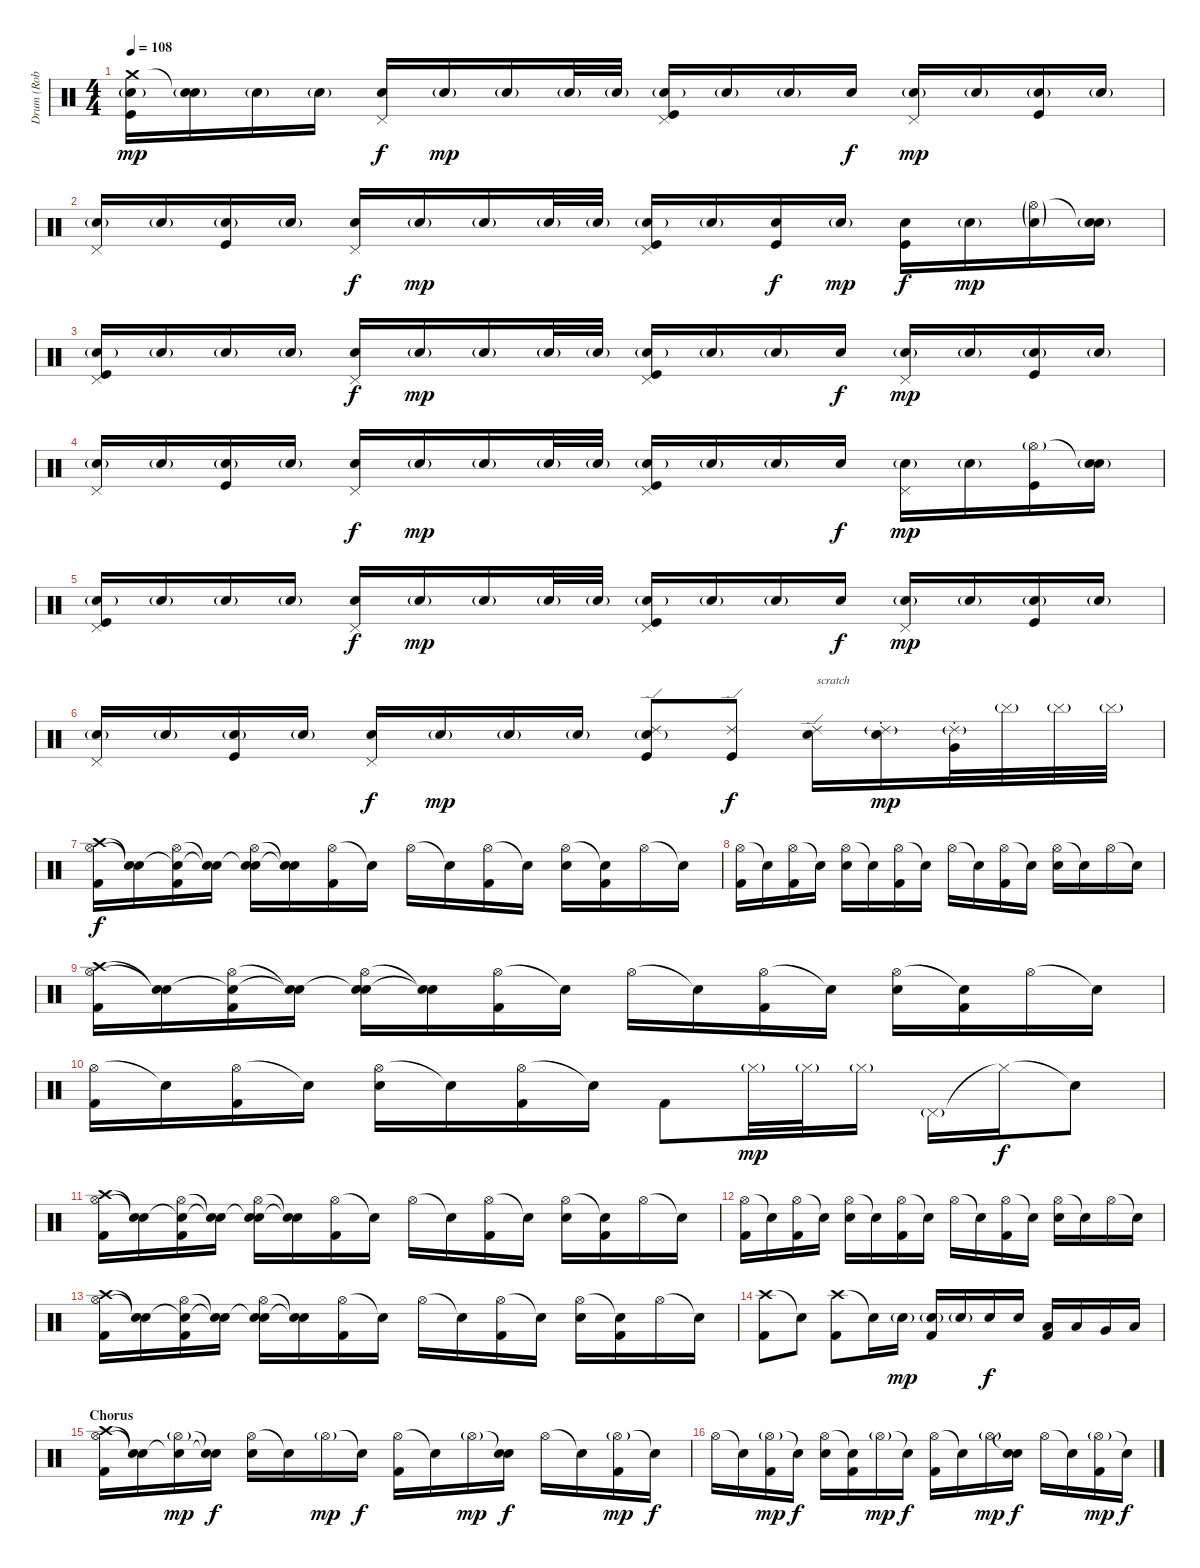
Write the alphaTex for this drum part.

\track ("Drum (Rob Bourdon)" "Drum (Rob ") {instrument percussion}
\staff {score}
\articulation defaults
\ts (4 4)
\tempo 108
\clef neutral
\ks c
("Crash medium (hit)" "Snare (hit) 2"{g} "Kick (hit)").16{dy mp volume 13} ("Snare (hit)"{t} "Snare (hit) 2"{g}).16{volume 6} "Snare (hit) 2"{g}.16 "Snare (hit) 2"{g}.16 ("Pedal Hi-Hat (hit)" "Electric Snare (hit)").16{dy f volume 13} "Snare (hit) 2"{g}.16{dy mp volume 6} "Snare (hit) 2"{g}.16 "Snare (hit) 2"{g}.32 "Snare (hit) 2"{g}.32 ("Pedal Hi-Hat (hit)" "Snare (hit) 2"{g} "Kick (hit)").16{volume 13} "Snare (hit) 2"{g}.16{volume 6} "Snare (hit) 2"{g}.16 "Electric Snare (hit)".16{dy f volume 13} ("Pedal Hi-Hat (hit)" "Snare (hit) 2"{g}).16{dy mp volume 6} "Snare (hit) 2"{g}.16 ("Snare (hit) 2"{g} "Kick (hit)").16{volume 13} "Snare (hit) 2"{g}.16{volume 6} |
("Pedal Hi-Hat (hit)" "Snare (hit) 2"{g}).16{volume 6} "Snare (hit) 2"{g}.16 ("Snare (hit) 2"{g} "Kick (hit)").16{volume 13} "Snare (hit) 2"{g}.16{volume 6} ("Pedal Hi-Hat (hit)" "Electric Snare (hit)").16{dy f volume 13} "Snare (hit) 2"{g}.16{dy mp volume 6} "Snare (hit) 2"{g}.16 "Snare (hit) 2"{g}.32 "Snare (hit) 2"{g}.32 ("Pedal Hi-Hat (hit)" "Snare (hit) 2"{g} "Kick (hit)").16{volume 13} "Snare (hit) 2"{g}.16{volume 6} ("Electric Snare (hit)" "Kick (hit)").16{dy f volume 13} "Snare (hit) 2"{g}.16{dy mp volume 6} ("Electric Snare (hit)" "Kick (hit)").16{dy f volume 13} "Snare (hit) 2"{g}.16{dy mp volume 6} ("Hi-Hat (open)"{g} "Snare (hit) 2"{g}).16 ("Snare (hit)"{t} "Snare (hit) 2"{g}).16 |
("Pedal Hi-Hat (hit)" "Snare (hit) 2"{g} "Kick (hit)").16{volume 13} "Snare (hit) 2"{g}.16{volume 6} "Snare (hit) 2"{g}.16 "Snare (hit) 2"{g}.16 ("Pedal Hi-Hat (hit)" "Electric Snare (hit)").16{dy f volume 13} "Snare (hit) 2"{g}.16{dy mp volume 6} "Snare (hit) 2"{g}.16 "Snare (hit) 2"{g}.32 "Snare (hit) 2"{g}.32 ("Pedal Hi-Hat (hit)" "Snare (hit) 2"{g} "Kick (hit)").16{volume 13} "Snare (hit) 2"{g}.16{volume 6} "Snare (hit) 2"{g}.16 "Electric Snare (hit)".16{dy f volume 13} ("Pedal Hi-Hat (hit)" "Snare (hit) 2"{g}).16{dy mp volume 6} "Snare (hit) 2"{g}.16 ("Snare (hit) 2"{g} "Kick (hit)").16{volume 13} "Snare (hit) 2"{g}.16{volume 6} |
("Pedal Hi-Hat (hit)" "Snare (hit) 2"{g}).16{volume 6} "Snare (hit) 2"{g}.16 ("Snare (hit) 2"{g} "Kick (hit)").16{volume 13} "Snare (hit) 2"{g}.16{volume 6} ("Pedal Hi-Hat (hit)" "Electric Snare (hit)").16{dy f volume 13} "Snare (hit) 2"{g}.16{dy mp volume 6} "Snare (hit) 2"{g}.16 "Snare (hit) 2"{g}.32 "Snare (hit) 2"{g}.32 ("Pedal Hi-Hat (hit)" "Snare (hit) 2"{g} "Kick (hit)").16{volume 13} "Snare (hit) 2"{g}.16{volume 6} "Snare (hit) 2"{g}.16 "Electric Snare (hit)".16{dy f volume 13} ("Pedal Hi-Hat (hit)" "Snare (hit) 2"{g}).16{dy mp volume 6} "Snare (hit) 2"{g}.16 ("Hi-Hat (open)"{g} "Kick (hit)").16{volume 13} ("Snare (hit)"{t} "Snare (hit) 2"{g}).16{volume 6} |
("Pedal Hi-Hat (hit)" "Snare (hit) 2"{g} "Kick (hit)").16{volume 13} "Snare (hit) 2"{g}.16{volume 6} "Snare (hit) 2"{g}.16 "Snare (hit) 2"{g}.16 ("Pedal Hi-Hat (hit)" "Electric Snare (hit)").16{dy f volume 13} "Snare (hit) 2"{g}.16{dy mp volume 6} "Snare (hit) 2"{g}.16 "Snare (hit) 2"{g}.32 "Snare (hit) 2"{g}.32 ("Pedal Hi-Hat (hit)" "Snare (hit) 2"{g} "Kick (hit)").16{volume 13} "Snare (hit) 2"{g}.16{volume 6} "Snare (hit) 2"{g}.16 "Electric Snare (hit)".16{dy f volume 13} ("Pedal Hi-Hat (hit)" "Snare (hit) 2"{g}).16{dy mp volume 6} "Snare (hit) 2"{g}.16 ("Snare (hit) 2"{g} "Kick (hit)").16{volume 13} "Snare (hit) 2"{g}.16{volume 6} |
("Pedal Hi-Hat (hit)" "Snare (hit) 2"{g}).16{volume 6} "Snare (hit) 2"{g}.16 ("Snare (hit) 2"{g} "Kick (hit)").16{volume 13} "Snare (hit) 2"{g}.16{volume 6} ("Pedal Hi-Hat (hit)" "Electric Snare (hit)").16{dy f volume 13} "Snare (hit) 2"{g}.16{dy mp volume 6} "Snare (hit) 2"{g}.16 "Snare (hit) 2"{g}.16 ("Ride (edge) 2" "Snare (hit) 2"{g} "Kick (hit)").8{volume 13} ("Ride (edge) 2" "Kick (hit)").8{dy f} ("Ride (edge) 2" "Electric Snare (hit)").16{txt "scratch"} ("Ride (choke) 2"{g} "Electric Snare (hit)").16{dy mp} ("Ride (choke) 2"{g} "Very Low Tom (hit)").32 "Cymbal (hit)"{g}.32 "Cymbal (hit)"{g}.32 "Cymbal (hit)"{g}.32 |
("Crash high (hit)" "Hi-Hat (open)" "Kick (hit) 2").16{dy f volume 13} ("Snare (hit)"{t} "Snare (hit)"{t}).16 ("Snare (hit)"{t} "Hi-Hat (open)" "Kick (hit) 2").16 ("Snare (hit)"{t} "Snare (hit)"{t}).16 ("Snare (hit)"{t} "Hi-Hat (open)" "Electric Snare (hit)").16 ("Snare (hit)"{t} "Snare (hit)"{t}).16 ("Hi-Hat (open)" "Kick (hit) 2").16 "Snare (hit)"{t}.16 "Hi-Hat (open)".16 "Snare (hit)"{t}.16 ("Hi-Hat (open)" "Kick (hit) 2").16 "Snare (hit)"{t}.16 ("Hi-Hat (open)" "Electric Snare (hit)").16 ("Snare (hit)"{t} "Kick (hit) 2").16 "Hi-Hat (open)".16 "Snare (hit)"{t}.16 |
("Hi-Hat (open)" "Kick (hit) 2").16 "Snare (hit)"{t}.16 ("Hi-Hat (open)" "Kick (hit) 2").16 "Snare (hit)"{t}.16 ("Hi-Hat (open)" "Electric Snare (hit)").16 "Snare (hit)"{t}.16 ("Hi-Hat (open)" "Kick (hit) 2").16 "Snare (hit)"{t}.16 "Hi-Hat (open)".16 "Snare (hit)"{t}.16 ("Hi-Hat (open)" "Kick (hit) 2").16 "Snare (hit)"{t}.16 ("Hi-Hat (open)" "Electric Snare (hit)").16 "Snare (hit)"{t}.16 "Hi-Hat (open)".16 "Snare (hit)"{t}.16 |
("Crash high (hit)" "Hi-Hat (open)" "Kick (hit) 2").16 ("Snare (hit)"{t} "Snare (hit)"{t}).16 ("Snare (hit)"{t} "Hi-Hat (open)" "Kick (hit) 2").16 ("Snare (hit)"{t} "Snare (hit)"{t}).16 ("Snare (hit)"{t} "Hi-Hat (open)" "Electric Snare (hit)").16 ("Snare (hit)"{t} "Snare (hit)"{t}).16 ("Hi-Hat (open)" "Kick (hit) 2").16 "Snare (hit)"{t}.16 "Hi-Hat (open)".16 "Snare (hit)"{t}.16 ("Hi-Hat (open)" "Kick (hit) 2").16 "Snare (hit)"{t}.16 ("Hi-Hat (open)" "Electric Snare (hit)").16 ("Snare (hit)"{t} "Kick (hit) 2").16 "Hi-Hat (open)".16 "Snare (hit)"{t}.16 |
("Hi-Hat (open)" "Kick (hit) 2").16 "Snare (hit)"{t}.16 ("Hi-Hat (open)" "Kick (hit) 2").16 "Snare (hit)"{t}.16 ("Hi-Hat (open)" "Electric Snare (hit)").16 "Snare (hit)"{t}.16 ("Hi-Hat (open)" "Kick (hit) 2").16 "Snare (hit)"{t}.16 "Kick (hit) 2".8 "Hi-Hat (closed)"{g}.32{dy mp} "Hi-Hat (closed)"{g}.32 "Hi-Hat (closed)"{g}.16 "Pedal Hi-Hat (hit)"{g}.16 "Hi-Hat (closed)"{t}.16{dy f} "Snare (hit)"{t}.8 |
("Crash high (hit)" "Hi-Hat (open)" "Kick (hit) 2").16 ("Snare (hit)"{t} "Snare (hit)"{t}).16 ("Snare (hit)"{t} "Hi-Hat (open)" "Kick (hit) 2").16 ("Snare (hit)"{t} "Snare (hit)"{t}).16 ("Snare (hit)"{t} "Hi-Hat (open)" "Electric Snare (hit)").16 ("Snare (hit)"{t} "Snare (hit)"{t}).16 ("Hi-Hat (open)" "Kick (hit) 2").16 "Snare (hit)"{t}.16 "Hi-Hat (open)".16 "Snare (hit)"{t}.16 ("Hi-Hat (open)" "Kick (hit) 2").16 "Snare (hit)"{t}.16 ("Hi-Hat (open)" "Electric Snare (hit)").16 ("Snare (hit)"{t} "Kick (hit) 2").16 "Hi-Hat (open)".16 "Snare (hit)"{t}.16 |
("Hi-Hat (open)" "Kick (hit) 2").16 "Snare (hit)"{t}.16 ("Hi-Hat (open)" "Kick (hit) 2").16 "Snare (hit)"{t}.16 ("Hi-Hat (open)" "Electric Snare (hit)").16 "Snare (hit)"{t}.16 ("Hi-Hat (open)" "Kick (hit) 2").16 "Snare (hit)"{t}.16 "Hi-Hat (open)".16 "Snare (hit)"{t}.16 ("Hi-Hat (open)" "Kick (hit) 2").16 "Snare (hit)"{t}.16 ("Hi-Hat (open)" "Electric Snare (hit)").16 "Snare (hit)"{t}.16 "Hi-Hat (open)".16 "Snare (hit)"{t}.16 |
("Crash high (hit)" "Hi-Hat (open)" "Kick (hit) 2").16 ("Snare (hit)"{t} "Snare (hit)"{t}).16 ("Snare (hit)"{t} "Hi-Hat (open)" "Kick (hit) 2").16 ("Snare (hit)"{t} "Snare (hit)"{t}).16 ("Snare (hit)"{t} "Hi-Hat (open)" "Electric Snare (hit)").16 ("Snare (hit)"{t} "Snare (hit)"{t}).16 ("Hi-Hat (open)" "Kick (hit) 2").16 "Snare (hit)"{t}.16 "Hi-Hat (open)".16 "Snare (hit)"{t}.16 ("Hi-Hat (open)" "Kick (hit) 2").16 "Snare (hit)"{t}.16 ("Hi-Hat (open)" "Electric Snare (hit)").16 ("Snare (hit)"{t} "Kick (hit) 2").16 "Hi-Hat (open)".16 "Snare (hit)"{t}.16 |
("Crash high (hit)" "Kick (hit) 2").8 "Snare (hit)"{t}.8 ("Crash high (hit)" "Kick (hit) 2").8 "Snare (hit)"{t}.16 "Electric Snare (hit)"{g}.16{dy mp} ("Electric Snare (hit)"{g} "Kick (hit) 2").16 "Electric Snare (hit)"{g}.16 "Electric Snare (hit)".16{dy f} "Electric Snare (hit)".16 ("Low Tom (hit)" "Kick (hit) 2").16 "Low Tom (hit)".16 "Very Low Tom (hit)".16 "Low Floor Tom (hit)".16 |
\section ("" "Chorus")
("Crash high (hit)" "Hi-Hat (open)" "Kick (hit) 2").16 ("Snare (hit)"{t} "Snare (hit)"{t}).16 ("Snare (hit)"{t} "Hi-Hat (open)"{g}).16{dy mp} ("Snare (hit)"{t} "Snare (hit)"{t}).16{dy f} ("Hi-Hat (open)" "Electric Snare (hit)").16 "Snare (hit)"{t}.16 "Hi-Hat (open)"{g}.16{dy mp} "Snare (hit)"{t}.16{dy f} ("Hi-Hat (open)" "Kick (hit) 2").16 "Snare (hit)"{t}.16 "Hi-Hat (open)"{g}.16{dy mp} ("Snare (hit)"{t} "Electric Snare (hit)").16{dy f} "Hi-Hat (open)".16 "Snare (hit)"{t}.16 ("Hi-Hat (open)"{g} "Kick (hit) 2").16{dy mp} "Snare (hit)"{t}.16{dy f} |
"Hi-Hat (open)".16 "Snare (hit)"{t}.16 ("Hi-Hat (open)"{g} "Kick (hit) 2").16{dy mp} "Snare (hit)"{t}.16{dy f} ("Hi-Hat (open)" "Electric Snare (hit)").16 ("Snare (hit)"{t} "Kick (hit) 2").16 "Hi-Hat (open)"{g}.16{dy mp} "Snare (hit)"{t}.16{dy f} ("Hi-Hat (open)" "Kick (hit) 2").16 "Snare (hit)"{t}.16 "Hi-Hat (open)"{g}.16{dy mp} ("Snare (hit)"{t} "Electric Snare (hit)").16{dy f} "Hi-Hat (open)".16 "Snare (hit)"{t}.16 ("Hi-Hat (open)"{g} "Kick (hit) 2").16{dy mp} "Snare (hit)"{t}.16{dy f}
